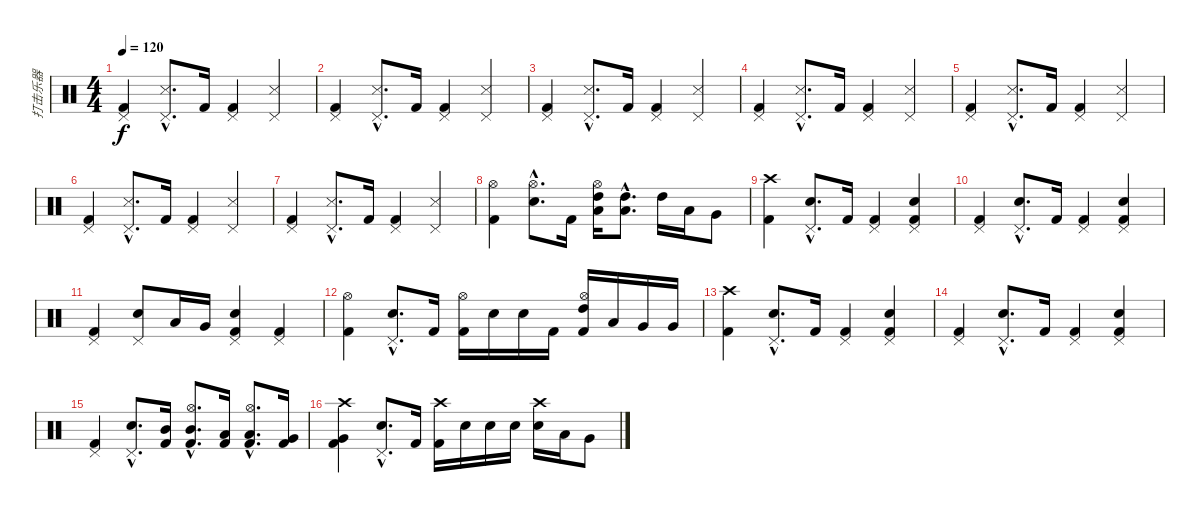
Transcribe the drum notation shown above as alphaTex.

\track ("打击乐器" "打击乐器") {instrument percussion}
\staff {score}
\articulation defaults
\ts (4 4)
\tempo 120
\clef neutral
\ks c
("Pedal Hi-Hat (hit)" "Kick (hit) 2").4{dy f} ("Pedal Hi-Hat (hit)"{hac} "Snare (side stick) 3"{hac}).8{d} "Kick (hit) 2".16 ("Pedal Hi-Hat (hit)" "Kick (hit) 2").4 ("Pedal Hi-Hat (hit)" "Snare (side stick) 3").4 |
("Pedal Hi-Hat (hit)" "Kick (hit) 2").4 ("Pedal Hi-Hat (hit)"{hac} "Snare (side stick) 3"{hac}).8{d} "Kick (hit) 2".16 ("Pedal Hi-Hat (hit)" "Kick (hit) 2").4 ("Pedal Hi-Hat (hit)" "Snare (side stick) 3").4 |
("Pedal Hi-Hat (hit)" "Kick (hit) 2").4 ("Pedal Hi-Hat (hit)"{hac} "Snare (side stick) 3"{hac}).8{d} "Kick (hit) 2".16 ("Pedal Hi-Hat (hit)" "Kick (hit) 2").4 ("Pedal Hi-Hat (hit)" "Snare (side stick) 3").4 |
("Pedal Hi-Hat (hit)" "Kick (hit) 2").4 ("Pedal Hi-Hat (hit)"{hac} "Snare (side stick) 3"{hac}).8{d} "Kick (hit) 2".16 ("Pedal Hi-Hat (hit)" "Kick (hit) 2").4 ("Pedal Hi-Hat (hit)" "Snare (side stick) 3").4 |
("Pedal Hi-Hat (hit)" "Kick (hit) 2").4 ("Pedal Hi-Hat (hit)"{hac} "Snare (side stick) 3"{hac}).8{d} "Kick (hit) 2".16 ("Pedal Hi-Hat (hit)" "Kick (hit) 2").4 ("Pedal Hi-Hat (hit)" "Snare (side stick) 3").4 |
("Pedal Hi-Hat (hit)" "Kick (hit) 2").4 ("Pedal Hi-Hat (hit)"{hac} "Snare (side stick) 3"{hac}).8{d} "Kick (hit) 2".16 ("Pedal Hi-Hat (hit)" "Kick (hit) 2").4 ("Pedal Hi-Hat (hit)" "Snare (side stick) 3").4 |
("Pedal Hi-Hat (hit)" "Kick (hit) 2").4 ("Pedal Hi-Hat (hit)"{hac} "Snare (side stick) 3"{hac}).8{d} "Kick (hit) 2".16 ("Pedal Hi-Hat (hit)" "Kick (hit) 2").4 ("Pedal Hi-Hat (hit)" "Snare (side stick) 3").4 |
("Hi-Hat (open)" "Kick (hit) 2").4 ("Hi-Hat (open)"{hac} "Snare (hit) 2"{hac}).8{d} "Kick (hit) 2".16 ("Hi-Hat (open)" "Low Tom (hit)" "High Tom (hit)").16 ("Low Tom (hit)"{hac} "High Tom (hit)"{hac}).8{d} "High Tom (hit)".16 "Low Tom (hit)".16 "Very Low Tom (hit)".8 |
("Crash high (hit)" "Kick (hit) 2").4 ("Pedal Hi-Hat (hit)"{hac} "Snare (hit) 2"{hac}).8{d} "Kick (hit) 2".16 ("Pedal Hi-Hat (hit)" "Kick (hit) 2").4 ("Pedal Hi-Hat (hit)" "Snare (hit) 2" "Kick (hit) 2").4 |
("Pedal Hi-Hat (hit)" "Kick (hit) 2").4 ("Pedal Hi-Hat (hit)"{hac} "Snare (hit) 2"{hac}).8{d} "Kick (hit) 2".16 ("Pedal Hi-Hat (hit)" "Kick (hit) 2").4 ("Pedal Hi-Hat (hit)" "Snare (hit) 2" "Kick (hit) 2").4 |
("Pedal Hi-Hat (hit)" "Kick (hit) 2").4 ("Pedal Hi-Hat (hit)" "Snare (hit) 2").8 "Low Tom (hit)".16 "Very Low Tom (hit)".16 ("Pedal Hi-Hat (hit)" "Snare (hit) 2" "Kick (hit) 2").4 ("Pedal Hi-Hat (hit)" "Kick (hit) 2").4 |
("Hi-Hat (open)" "Kick (hit) 2").4 ("Pedal Hi-Hat (hit)"{hac} "Snare (hit) 2"{hac}).8{d} "Kick (hit) 2".16 ("Hi-Hat (open)" "Kick (hit) 2").16 "Snare (hit) 2".16 "Snare (hit) 2".16 "Kick (hit) 2".16 ("Hi-Hat (open)" "High Tom (hit)" "Kick (hit) 2").16 "Low Tom (hit)".16 "Very Low Tom (hit)".16 "Very Low Tom (hit)".16 |
("Crash high (hit)" "Kick (hit) 2").4 ("Pedal Hi-Hat (hit)"{hac} "Snare (hit) 2"{hac}).8{d} "Kick (hit) 2".16 ("Pedal Hi-Hat (hit)" "Kick (hit) 2").4 ("Pedal Hi-Hat (hit)" "Snare (hit) 2" "Kick (hit) 2").4 |
("Pedal Hi-Hat (hit)" "Kick (hit) 2").4 ("Pedal Hi-Hat (hit)"{hac} "Snare (hit) 2"{hac}).8{d} "Kick (hit) 2".16 ("Pedal Hi-Hat (hit)" "Kick (hit) 2").4 ("Pedal Hi-Hat (hit)" "Snare (hit) 2" "Kick (hit) 2").4 |
("Pedal Hi-Hat (hit)" "Kick (hit) 2").4 ("Pedal Hi-Hat (hit)"{hac} "Snare (hit) 2"{hac}).8{d} ("Mid Tom (hit)" "Kick (hit) 2").16 ("Hi-Hat (open)"{hac} "Mid Tom (hit)"{hac} "Kick (hit) 2"{hac}).8{d} ("Low Tom (hit)" "Kick (hit) 2").16 ("Hi-Hat (open)"{hac} "Low Tom (hit)"{hac} "Kick (hit) 2"{hac}).8{d} ("Very Low Tom (hit)" "Kick (hit) 2").16 |
("Crash high (hit)" "Very Low Tom (hit)" "Kick (hit) 2").4 ("Pedal Hi-Hat (hit)"{hac} "Snare (hit) 2"{hac}).8{d} "Kick (hit) 2".16 ("Crash high (hit)" "Kick (hit) 2").16 "Snare (hit) 2".16 "Snare (hit) 2".16 "Snare (hit) 2".16 ("Crash high (hit)" "Snare (hit) 2").16 "Low Tom (hit)".16 "Very Low Tom (hit)".8
